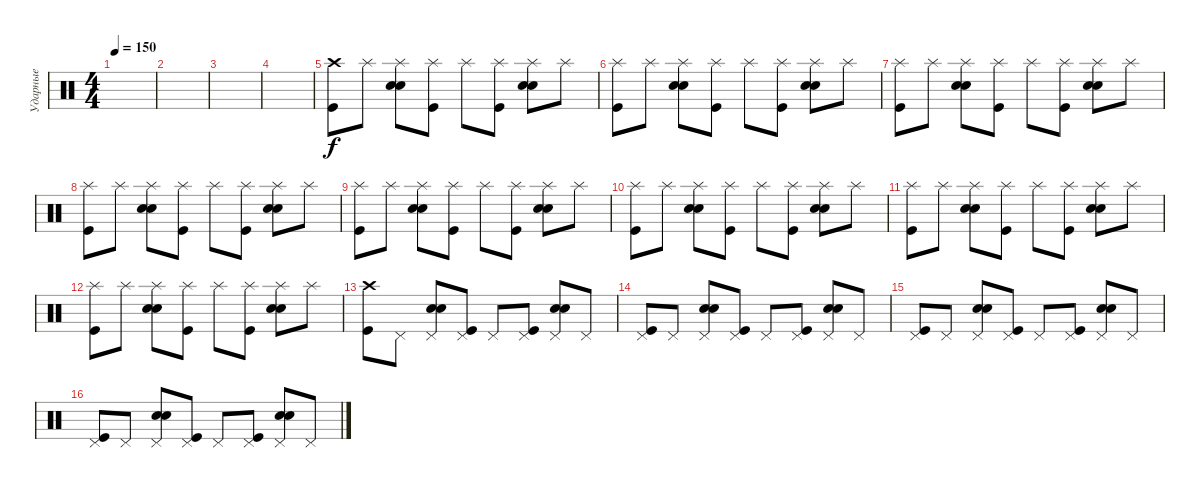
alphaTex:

\track ("Ударные" "Ударные") {instrument percussion}
\staff {score}
\articulation defaults
\ts (4 4)
\tempo 150
\clef neutral
\ks c
|
|
|
|
("Crash high (hit)" "Kick (hit)").8 "Splash (hit)".8 ("Splash (hit)" "Electric Snare (hit)" "Snare (hit) 2").8 ("Splash (hit)" "Kick (hit)").8 "Splash (hit)".8 ("Splash (hit)" "Kick (hit)").8 ("Splash (hit)" "Electric Snare (hit)" "Snare (hit) 2").8 "Splash (hit)".8 |
("Splash (hit)" "Kick (hit)").8 "Splash (hit)".8 ("Splash (hit)" "Electric Snare (hit)" "Snare (hit) 2").8 ("Splash (hit)" "Kick (hit)").8 "Splash (hit)".8 ("Splash (hit)" "Kick (hit)").8 ("Splash (hit)" "Electric Snare (hit)" "Snare (hit) 2").8 "Splash (hit)".8 |
("Splash (hit)" "Kick (hit)").8 "Splash (hit)".8 ("Splash (hit)" "Electric Snare (hit)" "Snare (hit) 2").8 ("Splash (hit)" "Kick (hit)").8 "Splash (hit)".8 ("Splash (hit)" "Kick (hit)").8 ("Splash (hit)" "Electric Snare (hit)" "Snare (hit) 2").8 "Splash (hit)".8 |
("Splash (hit)" "Kick (hit)").8 "Splash (hit)".8 ("Splash (hit)" "Electric Snare (hit)" "Snare (hit) 2").8 ("Splash (hit)" "Kick (hit)").8 "Splash (hit)".8 ("Splash (hit)" "Kick (hit)").8 ("Splash (hit)" "Electric Snare (hit)" "Snare (hit) 2").8 "Splash (hit)".8 |
("Splash (hit)" "Kick (hit)").8 "Splash (hit)".8 ("Splash (hit)" "Electric Snare (hit)" "Snare (hit) 2").8 ("Splash (hit)" "Kick (hit)").8 "Splash (hit)".8 ("Splash (hit)" "Kick (hit)").8 ("Splash (hit)" "Electric Snare (hit)" "Snare (hit) 2").8 "Splash (hit)".8 |
("Splash (hit)" "Kick (hit)").8 "Splash (hit)".8 ("Splash (hit)" "Electric Snare (hit)" "Snare (hit) 2").8 ("Splash (hit)" "Kick (hit)").8 "Splash (hit)".8 ("Splash (hit)" "Kick (hit)").8 ("Splash (hit)" "Electric Snare (hit)" "Snare (hit) 2").8 "Splash (hit)".8 |
("Splash (hit)" "Kick (hit)").8 "Splash (hit)".8 ("Splash (hit)" "Electric Snare (hit)" "Snare (hit) 2").8 ("Splash (hit)" "Kick (hit)").8 "Splash (hit)".8 ("Splash (hit)" "Kick (hit)").8 ("Splash (hit)" "Electric Snare (hit)" "Snare (hit) 2").8 "Splash (hit)".8 |
("Splash (hit)" "Kick (hit)").8 "Splash (hit)".8 ("Splash (hit)" "Electric Snare (hit)" "Snare (hit) 2").8 ("Splash (hit)" "Kick (hit)").8 "Splash (hit)".8 ("Splash (hit)" "Kick (hit)").8 ("Splash (hit)" "Electric Snare (hit)" "Snare (hit) 2").8 "Splash (hit)".8 |
("Crash high (hit)" "Kick (hit)").8 "Pedal Hi-Hat (hit)".8 ("Pedal Hi-Hat (hit)" "Electric Snare (hit)" "Snare (hit) 2").8 ("Pedal Hi-Hat (hit)" "Kick (hit)").8 "Pedal Hi-Hat (hit)".8 ("Pedal Hi-Hat (hit)" "Kick (hit)").8 ("Pedal Hi-Hat (hit)" "Electric Snare (hit)" "Snare (hit) 2").8 "Pedal Hi-Hat (hit)".8 |
("Pedal Hi-Hat (hit)" "Kick (hit)").8 "Pedal Hi-Hat (hit)".8 ("Pedal Hi-Hat (hit)" "Electric Snare (hit)" "Snare (hit) 2").8 ("Pedal Hi-Hat (hit)" "Kick (hit)").8 "Pedal Hi-Hat (hit)".8 ("Pedal Hi-Hat (hit)" "Kick (hit)").8 ("Pedal Hi-Hat (hit)" "Electric Snare (hit)" "Snare (hit) 2").8 "Pedal Hi-Hat (hit)".8 |
("Pedal Hi-Hat (hit)" "Kick (hit)").8 "Pedal Hi-Hat (hit)".8 ("Pedal Hi-Hat (hit)" "Electric Snare (hit)" "Snare (hit) 2").8 ("Pedal Hi-Hat (hit)" "Kick (hit)").8 "Pedal Hi-Hat (hit)".8 ("Pedal Hi-Hat (hit)" "Kick (hit)").8 ("Pedal Hi-Hat (hit)" "Electric Snare (hit)" "Snare (hit) 2").8 "Pedal Hi-Hat (hit)".8 |
("Pedal Hi-Hat (hit)" "Kick (hit)").8 "Pedal Hi-Hat (hit)".8 ("Pedal Hi-Hat (hit)" "Electric Snare (hit)" "Snare (hit) 2").8 ("Pedal Hi-Hat (hit)" "Kick (hit)").8 "Pedal Hi-Hat (hit)".8 ("Pedal Hi-Hat (hit)" "Kick (hit)").8 ("Pedal Hi-Hat (hit)" "Electric Snare (hit)" "Snare (hit) 2").8 "Pedal Hi-Hat (hit)".8
